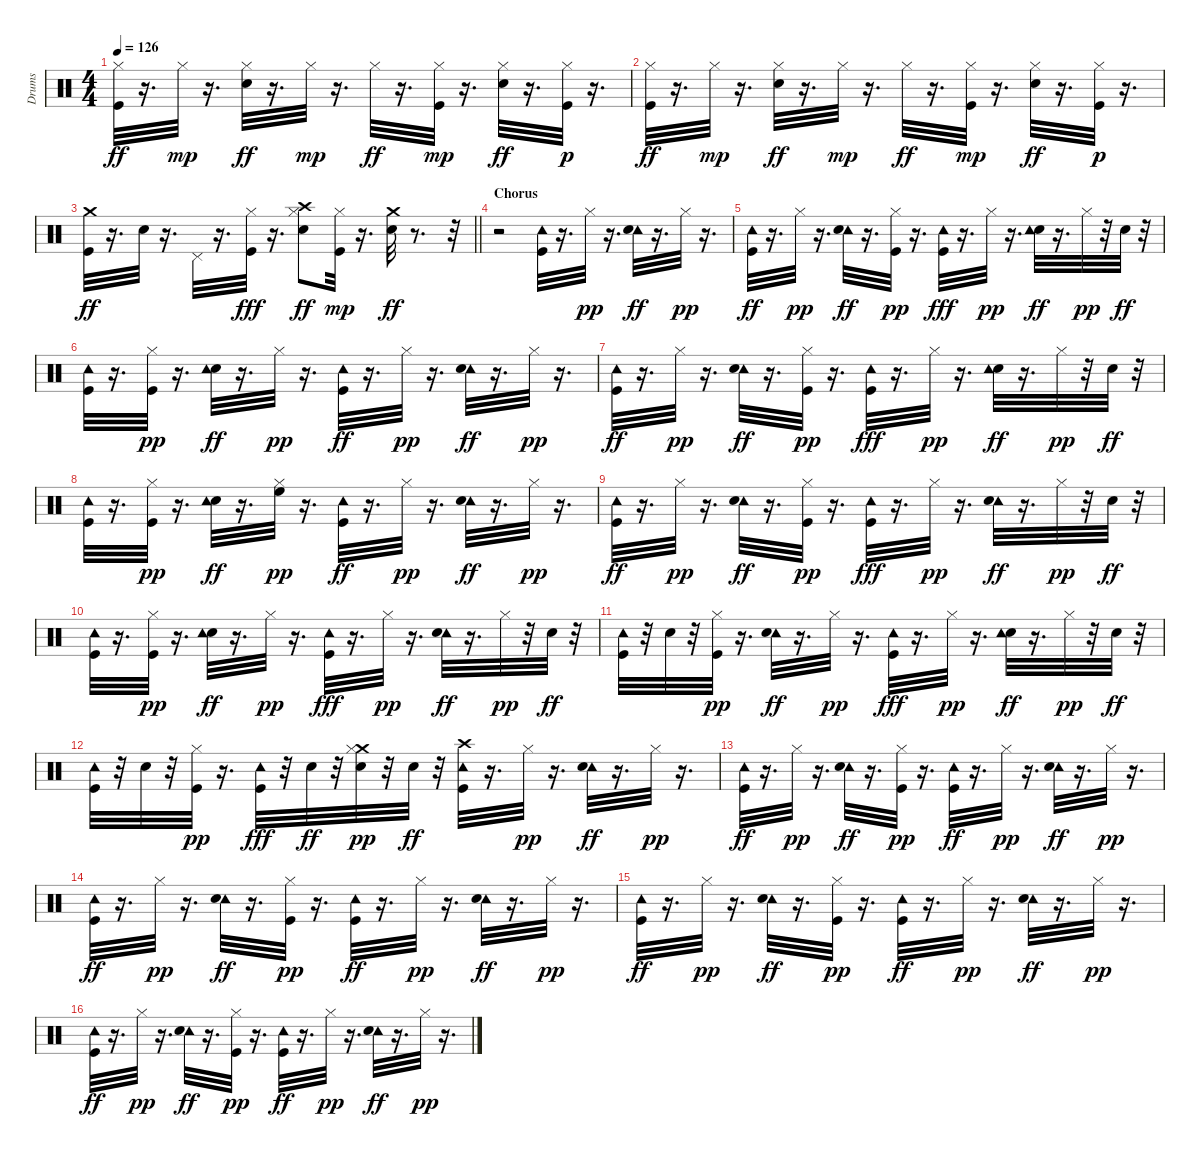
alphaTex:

\track ("Drums" "Drums") {instrument percussion}
\staff {score}
\articulation defaults
\ts (4 4)
\tempo 126
\clef neutral
\ks c
("Kick (hit)" "Hi-Hat (closed)").32{dy ff} r.16{d} "Hi-Hat (closed)".32{dy mp} r.16{d} ("Hi-Hat (closed)" "Electric Snare (hit)").32{dy ff} r.16{d} "Hi-Hat (closed)".32{dy mp} r.16{d} "Hi-Hat (closed)".32{dy ff} r.16{d} ("Kick (hit)" "Hi-Hat (closed)").32{dy mp} r.16{d} ("Electric Snare (hit)" "Hi-Hat (closed)").32{dy ff} r.16{d} ("Kick (hit)" "Hi-Hat (closed)").32{dy p} r.16{d} |
("Kick (hit)" "Hi-Hat (closed)").32{dy ff} r.16{d} "Hi-Hat (closed)".32{dy mp} r.16{d} ("Hi-Hat (closed)" "Electric Snare (hit)").32{dy ff} r.16{d} "Hi-Hat (closed)".32{dy mp} r.16{d} "Hi-Hat (closed)".32{dy ff} r.16{d} ("Kick (hit)" "Hi-Hat (closed)").32{dy mp} r.16{d} ("Electric Snare (hit)" "Hi-Hat (closed)").32{dy ff} r.16{d} ("Kick (hit)" "Hi-Hat (closed)").32{dy p} r.16{d} |
\barLineRight lightlight
("Kick (hit)" "Crash medium (hit)").32{dy ff} r.16{d} "Electric Snare (hit)".32 r.16{d} "Pedal Hi-Hat (hit)".32 r.16{d} ("Hi-Hat (closed)" "Kick (hit)").32{dy fff} r.16{d} ("Hi-Hat (closed)" "Electric Snare (hit)" "Crash high (hit)").8{dy ff} ("Kick (hit)" "Hi-Hat (closed)").32{dy mp} r.16{d} ("Electric Snare (hit)" "Crash medium (hit)").32{dy ff} r.8{d} r.32 |
\section ("" "Chorus")
r.2 ("Tambourine (hit)" "Kick (hit)").32 r.16{d} "Hi-Hat (closed)".32{dy pp} r.16{d} ("Tambourine (hit)" "Electric Snare (hit)").32{dy ff} r.16{d} "Hi-Hat (closed)".32{dy pp} r.16{d} |
("Tambourine (hit)" "Kick (hit)").32{dy ff} r.16{d} "Hi-Hat (closed)".32{dy pp} r.16{d} ("Tambourine (hit)" "Electric Snare (hit)").32{dy ff} r.16{d} ("Kick (hit)" "Hi-Hat (closed)").32{dy pp} r.16{d} ("Tambourine (hit)" "Kick (hit)").32{dy fff} r.16{d} "Hi-Hat (closed)".32{dy pp} r.16{d} ("Electric Snare (hit)" "Tambourine (hit)").32{dy ff} r.16{d} "Hi-Hat (closed)".32{dy pp} r.32 "Electric Snare (hit)".32{dy ff} r.32 |
("Tambourine (hit)" "Kick (hit)").32 r.16{d} ("Hi-Hat (closed)" "Kick (hit)").32{dy pp} r.16{d} ("Electric Snare (hit)" "Tambourine (hit)").32{dy ff} r.16{d} "Hi-Hat (closed)".32{dy pp} r.16{d} ("Tambourine (hit)" "Kick (hit)").32{dy ff} r.16{d} "Hi-Hat (closed)".32{dy pp} r.16{d} ("Tambourine (hit)" "Electric Snare (hit)").32{dy ff} r.16{d} "Hi-Hat (closed)".32{dy pp} r.16{d} |
("Kick (hit)" "Tambourine (hit)").32{dy ff} r.16{d} "Hi-Hat (closed)".32{dy pp} r.16{d} ("Tambourine (hit)" "Electric Snare (hit)").32{dy ff} r.16{d} ("Kick (hit)" "Hi-Hat (closed)").32{dy pp} r.16{d} ("Tambourine (hit)" "Kick (hit)").32{dy fff} r.16{d} "Hi-Hat (closed)".32{dy pp} r.16{d} ("Electric Snare (hit)" "Tambourine (hit)").32{dy ff} r.16{d} "Hi-Hat (closed)".32{dy pp} r.32 "Electric Snare (hit)".32{dy ff} r.32 |
("Tambourine (hit)" "Kick (hit)").32 r.16{d} ("Kick (hit)" "Hi-Hat (closed)").32{dy pp} r.16{d} ("Electric Snare (hit)" "Tambourine (hit)").32{dy ff} r.16{d} ("High Floor Tom (hit)" "Hi-Hat (closed)").32{dy pp} r.16{d} ("Tambourine (hit)" "Kick (hit)").32{dy ff} r.16{d} "Hi-Hat (closed)".32{dy pp} r.16{d} ("Tambourine (hit)" "Electric Snare (hit)").32{dy ff} r.16{d} "Hi-Hat (closed)".32{dy pp} r.16{d} |
("Kick (hit)" "Tambourine (hit)").32{dy ff} r.16{d} "Hi-Hat (closed)".32{dy pp} r.16{d} ("Tambourine (hit)" "Electric Snare (hit)").32{dy ff} r.16{d} ("Kick (hit)" "Hi-Hat (closed)").32{dy pp} r.16{d} ("Tambourine (hit)" "Kick (hit)").32{dy fff} r.16{d} "Hi-Hat (closed)".32{dy pp} r.16{d} ("Tambourine (hit)" "Electric Snare (hit)").32{dy ff} r.16{d} "Hi-Hat (closed)".32{dy pp} r.32 "Electric Snare (hit)".32{dy ff} r.32 |
("Tambourine (hit)" "Kick (hit)").32 r.16{d} ("Hi-Hat (closed)" "Kick (hit)").32{dy pp} r.16{d} ("Electric Snare (hit)" "Tambourine (hit)").32{dy ff} r.16{d} "Hi-Hat (closed)".32{dy pp} r.16{d} ("Tambourine (hit)" "Kick (hit)").32{dy fff} r.16{d} "Hi-Hat (closed)".32{dy pp} r.16{d} ("Tambourine (hit)" "Electric Snare (hit)").32{dy ff} r.16{d} "Hi-Hat (closed)".32{dy pp} r.32 "Electric Snare (hit)".32{dy ff} r.32 |
("Tambourine (hit)" "Kick (hit)").32 r.32 "Electric Snare (hit)".32 r.32 ("Kick (hit)" "Hi-Hat (closed)").32{dy pp} r.16{d} ("Tambourine (hit)" "Electric Snare (hit)").32{dy ff} r.16{d} "Hi-Hat (closed)".32{dy pp} r.16{d} ("Tambourine (hit)" "Kick (hit)").32{dy fff} r.16{d} "Hi-Hat (closed)".32{dy pp} r.16{d} ("Electric Snare (hit)" "Tambourine (hit)").32{dy ff} r.16{d} "Hi-Hat (closed)".32{dy pp} r.32 "Electric Snare (hit)".32{dy ff} r.32 |
("Tambourine (hit)" "Kick (hit)").32 r.32 "Electric Snare (hit)".32 r.32 ("Hi-Hat (closed)" "Kick (hit)").32{dy pp} r.16{d} ("Kick (hit)" "Tambourine (hit)").32{dy fff} r.32 "Electric Snare (hit)".32{dy ff} r.32 ("Crash medium (hit)" "Electric Snare (hit)" "Hi-Hat (closed)").32{dy pp} r.32 "Electric Snare (hit)".32{dy ff} r.32 ("Crash high (hit)" "Tambourine (hit)" "Kick (hit)").32 r.16{d} "Hi-Hat (closed)".32{dy pp} r.16{d} ("Tambourine (hit)" "Electric Snare (hit)").32{dy ff} r.16{d} "Hi-Hat (closed)".32{dy pp} r.16{d} |
("Kick (hit)" "Tambourine (hit)").32{dy ff} r.16{d} "Hi-Hat (closed)".32{dy pp} r.16{d} ("Tambourine (hit)" "Electric Snare (hit)").32{dy ff} r.16{d} ("Kick (hit)" "Hi-Hat (closed)").32{dy pp} r.16{d} ("Tambourine (hit)" "Kick (hit)").32{dy ff} r.16{d} "Hi-Hat (closed)".32{dy pp} r.16{d} ("Tambourine (hit)" "Electric Snare (hit)").32{dy ff} r.16{d} "Hi-Hat (closed)".32{dy pp} r.16{d} |
("Tambourine (hit)" "Kick (hit)").32{dy ff} r.16{d} "Hi-Hat (closed)".32{dy pp} r.16{d} ("Tambourine (hit)" "Electric Snare (hit)").32{dy ff} r.16{d} ("Kick (hit)" "Hi-Hat (closed)").32{dy pp} r.16{d} ("Tambourine (hit)" "Kick (hit)").32{dy ff} r.16{d} "Hi-Hat (closed)".32{dy pp} r.16{d} ("Tambourine (hit)" "Electric Snare (hit)").32{dy ff} r.16{d} "Hi-Hat (closed)".32{dy pp} r.16{d} |
("Kick (hit)" "Tambourine (hit)").32{dy ff} r.16{d} "Hi-Hat (closed)".32{dy pp} r.16{d} ("Tambourine (hit)" "Electric Snare (hit)").32{dy ff} r.16{d} ("Kick (hit)" "Hi-Hat (closed)").32{dy pp} r.16{d} ("Tambourine (hit)" "Kick (hit)").32{dy ff} r.16{d} "Hi-Hat (closed)".32{dy pp} r.16{d} ("Tambourine (hit)" "Electric Snare (hit)").32{dy ff} r.16{d} "Hi-Hat (closed)".32{dy pp} r.16{d} |
("Kick (hit)" "Tambourine (hit)").32{dy ff} r.16{d} "Hi-Hat (closed)".32{dy pp} r.16{d} ("Tambourine (hit)" "Electric Snare (hit)").32{dy ff} r.16{d} ("Kick (hit)" "Hi-Hat (closed)").32{dy pp} r.16{d} ("Tambourine (hit)" "Kick (hit)").32{dy ff} r.16{d} "Hi-Hat (closed)".32{dy pp} r.16{d} ("Tambourine (hit)" "Electric Snare (hit)").32{dy ff} r.16{d} "Hi-Hat (closed)".32{dy pp} r.16{d}
